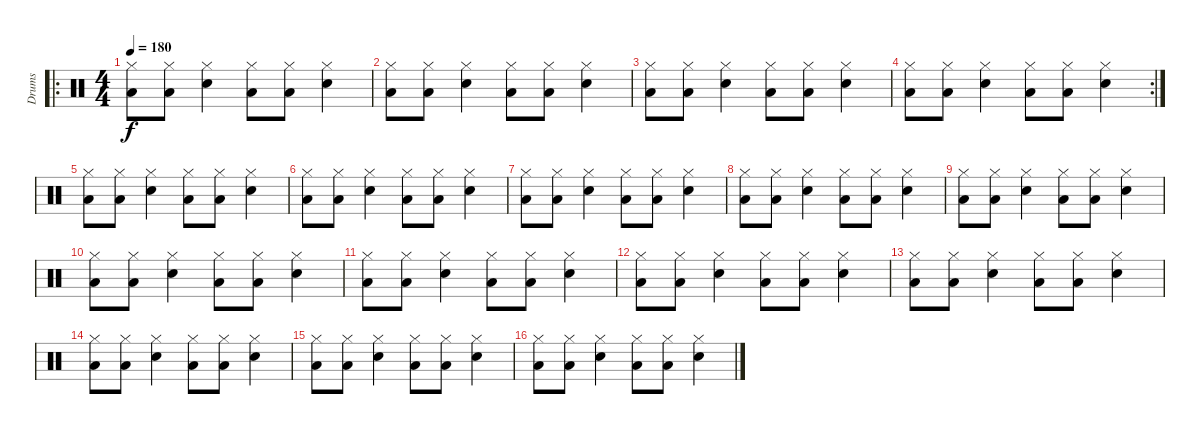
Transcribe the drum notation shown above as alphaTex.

\track ("Drums" "Drums") {instrument percussion}
\staff {score}
\articulation defaults
\ro
\ts (4 4)
\tempo 180
\clef neutral
\ks c
("Hi-Hat (closed)" "Low Tom (hit)").8{dy f} ("Hi-Hat (closed)" "Low Tom (hit)").8 ("Hi-Hat (closed)" "Electric Snare (hit)").4 ("Hi-Hat (closed)" "Low Tom (hit)").8 ("Hi-Hat (closed)" "Low Tom (hit)").8 ("Hi-Hat (closed)" "Electric Snare (hit)").4 |
("Hi-Hat (closed)" "Low Tom (hit)").8 ("Hi-Hat (closed)" "Low Tom (hit)").8 ("Hi-Hat (closed)" "Electric Snare (hit)").4 ("Hi-Hat (closed)" "Low Tom (hit)").8 ("Hi-Hat (closed)" "Low Tom (hit)").8 ("Hi-Hat (closed)" "Electric Snare (hit)").4 |
("Hi-Hat (closed)" "Low Tom (hit)").8 ("Hi-Hat (closed)" "Low Tom (hit)").8 ("Hi-Hat (closed)" "Electric Snare (hit)").4 ("Hi-Hat (closed)" "Low Tom (hit)").8 ("Hi-Hat (closed)" "Low Tom (hit)").8 ("Hi-Hat (closed)" "Electric Snare (hit)").4 |
\rc 2
("Hi-Hat (closed)" "Low Tom (hit)").8 ("Hi-Hat (closed)" "Low Tom (hit)").8 ("Hi-Hat (closed)" "Electric Snare (hit)").4 ("Hi-Hat (closed)" "Low Tom (hit)").8 ("Hi-Hat (closed)" "Low Tom (hit)").8 ("Hi-Hat (closed)" "Electric Snare (hit)").4 |
("Hi-Hat (closed)" "Low Tom (hit)").8 ("Hi-Hat (closed)" "Low Tom (hit)").8 ("Hi-Hat (closed)" "Electric Snare (hit)").4 ("Hi-Hat (closed)" "Low Tom (hit)").8 ("Hi-Hat (closed)" "Low Tom (hit)").8 ("Hi-Hat (closed)" "Electric Snare (hit)").4 |
("Hi-Hat (closed)" "Low Tom (hit)").8 ("Hi-Hat (closed)" "Low Tom (hit)").8 ("Hi-Hat (closed)" "Electric Snare (hit)").4 ("Hi-Hat (closed)" "Low Tom (hit)").8 ("Hi-Hat (closed)" "Low Tom (hit)").8 ("Hi-Hat (closed)" "Electric Snare (hit)").4 |
("Hi-Hat (closed)" "Low Tom (hit)").8 ("Hi-Hat (closed)" "Low Tom (hit)").8 ("Hi-Hat (closed)" "Electric Snare (hit)").4 ("Hi-Hat (closed)" "Low Tom (hit)").8 ("Hi-Hat (closed)" "Low Tom (hit)").8 ("Hi-Hat (closed)" "Electric Snare (hit)").4 |
("Hi-Hat (closed)" "Low Tom (hit)").8 ("Hi-Hat (closed)" "Low Tom (hit)").8 ("Hi-Hat (closed)" "Electric Snare (hit)").4 ("Hi-Hat (closed)" "Low Tom (hit)").8 ("Hi-Hat (closed)" "Low Tom (hit)").8 ("Hi-Hat (closed)" "Electric Snare (hit)").4 |
("Hi-Hat (closed)" "Low Tom (hit)").8 ("Hi-Hat (closed)" "Low Tom (hit)").8 ("Hi-Hat (closed)" "Electric Snare (hit)").4 ("Hi-Hat (closed)" "Low Tom (hit)").8 ("Hi-Hat (closed)" "Low Tom (hit)").8 ("Hi-Hat (closed)" "Electric Snare (hit)").4 |
("Hi-Hat (closed)" "Low Tom (hit)").8 ("Hi-Hat (closed)" "Low Tom (hit)").8 ("Hi-Hat (closed)" "Electric Snare (hit)").4 ("Hi-Hat (closed)" "Low Tom (hit)").8 ("Hi-Hat (closed)" "Low Tom (hit)").8 ("Hi-Hat (closed)" "Electric Snare (hit)").4 |
("Hi-Hat (closed)" "Low Tom (hit)").8 ("Hi-Hat (closed)" "Low Tom (hit)").8 ("Hi-Hat (closed)" "Electric Snare (hit)").4 ("Hi-Hat (closed)" "Low Tom (hit)").8 ("Hi-Hat (closed)" "Low Tom (hit)").8 ("Hi-Hat (closed)" "Electric Snare (hit)").4 |
("Hi-Hat (closed)" "Low Tom (hit)").8 ("Hi-Hat (closed)" "Low Tom (hit)").8 ("Hi-Hat (closed)" "Electric Snare (hit)").4 ("Hi-Hat (closed)" "Low Tom (hit)").8 ("Hi-Hat (closed)" "Low Tom (hit)").8 ("Hi-Hat (closed)" "Electric Snare (hit)").4 |
("Hi-Hat (closed)" "Low Tom (hit)").8 ("Hi-Hat (closed)" "Low Tom (hit)").8 ("Hi-Hat (closed)" "Electric Snare (hit)").4 ("Hi-Hat (closed)" "Low Tom (hit)").8 ("Hi-Hat (closed)" "Low Tom (hit)").8 ("Hi-Hat (closed)" "Electric Snare (hit)").4 |
("Hi-Hat (closed)" "Low Tom (hit)").8 ("Hi-Hat (closed)" "Low Tom (hit)").8 ("Hi-Hat (closed)" "Electric Snare (hit)").4 ("Hi-Hat (closed)" "Low Tom (hit)").8 ("Hi-Hat (closed)" "Low Tom (hit)").8 ("Hi-Hat (closed)" "Electric Snare (hit)").4 |
("Hi-Hat (closed)" "Low Tom (hit)").8 ("Hi-Hat (closed)" "Low Tom (hit)").8 ("Hi-Hat (closed)" "Electric Snare (hit)").4 ("Hi-Hat (closed)" "Low Tom (hit)").8 ("Hi-Hat (closed)" "Low Tom (hit)").8 ("Hi-Hat (closed)" "Electric Snare (hit)").4 |
("Hi-Hat (closed)" "Low Tom (hit)").8 ("Hi-Hat (closed)" "Low Tom (hit)").8 ("Hi-Hat (closed)" "Electric Snare (hit)").4 ("Hi-Hat (closed)" "Low Tom (hit)").8 ("Hi-Hat (closed)" "Low Tom (hit)").8 ("Hi-Hat (closed)" "Electric Snare (hit)").4
